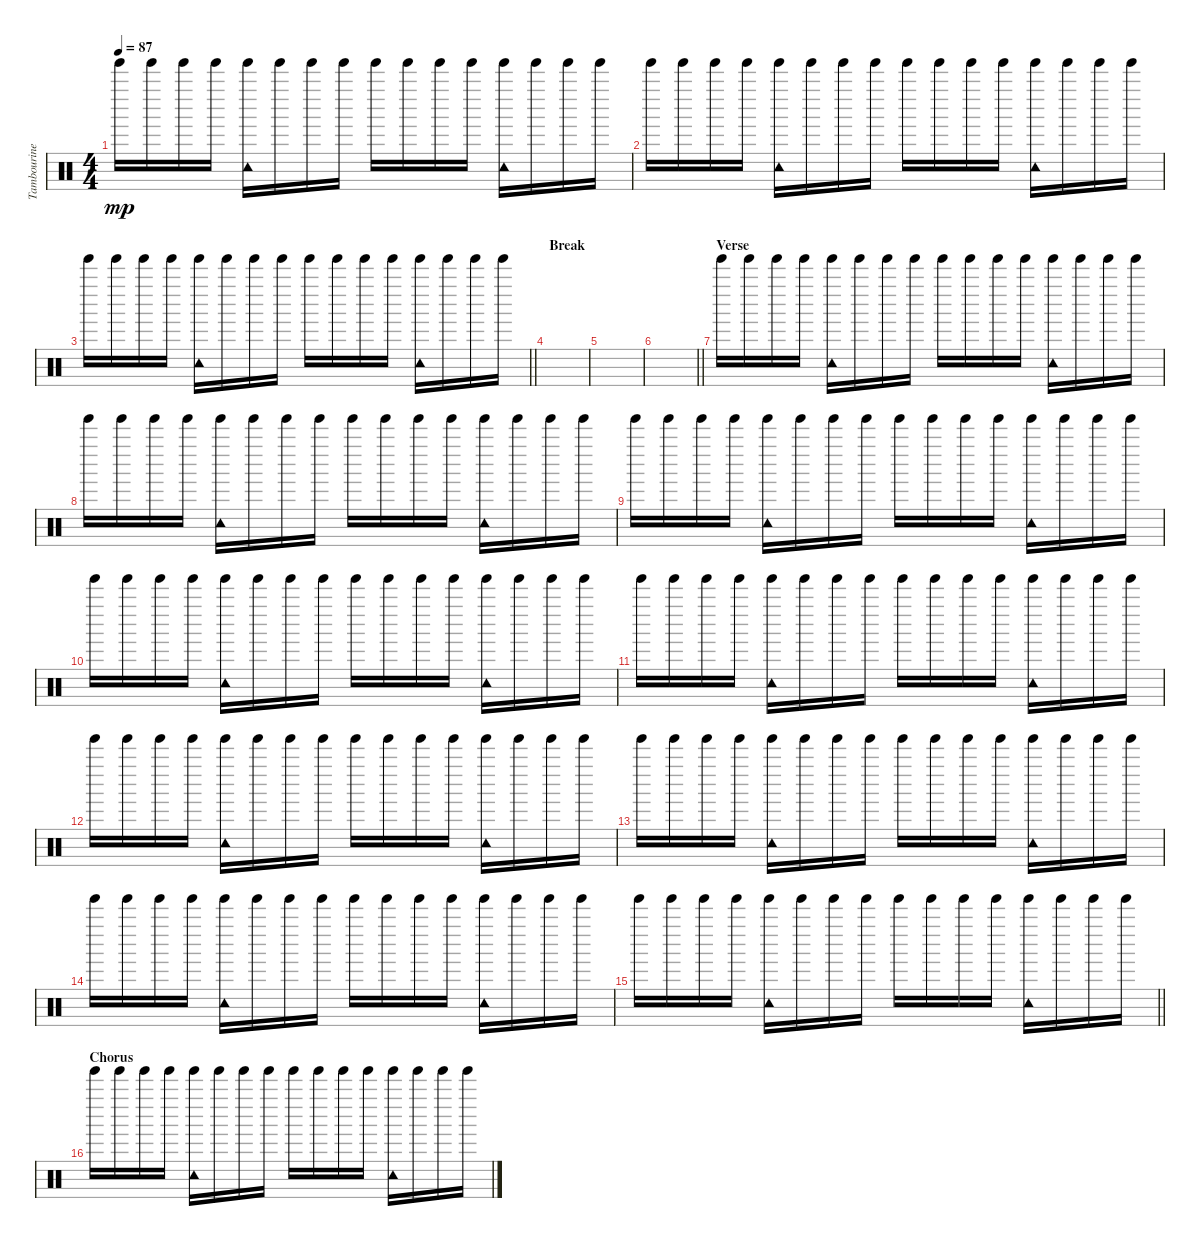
\track ("Tambourine" "Tambourine") {instrument percussion}
\staff {score}
\articulation defaults
\ts (4 4)
\tempo 87
\clef neutral
\ks c "Tinkle Bell (hit)".16{dy mp} "Tinkle Bell (hit)".16 "Tinkle Bell (hit)".16 "Tinkle Bell (hit)".16
("Tinkle Bell (hit)" "Tambourine (hit)").16 "Tinkle Bell (hit)".16 "Tinkle Bell (hit)".16 "Tinkle Bell (hit)".16 "Tinkle Bell (hit)".16 "Tinkle Bell (hit)".16 "Tinkle Bell (hit)".16 "Tinkle Bell (hit)".16 ("Tinkle Bell (hit)" "Tambourine (hit)").16 "Tinkle Bell (hit)".16 "Tinkle Bell (hit)".16 "Tinkle Bell (hit)".16 |
"Tinkle Bell (hit)".16 "Tinkle Bell (hit)".16 "Tinkle Bell (hit)".16 "Tinkle Bell (hit)".16 ("Tinkle Bell (hit)" "Tambourine (hit)").16 "Tinkle Bell (hit)".16 "Tinkle Bell (hit)".16 "Tinkle Bell (hit)".16 "Tinkle Bell (hit)".16 "Tinkle Bell (hit)".16 "Tinkle Bell (hit)".16 "Tinkle Bell (hit)".16 ("Tinkle Bell (hit)" "Tambourine (hit)").16 "Tinkle Bell (hit)".16 "Tinkle Bell (hit)".16 "Tinkle Bell (hit)".16 |
\barLineRight lightlight "Tinkle Bell (hit)".16 "Tinkle Bell (hit)".16 "Tinkle Bell (hit)".16 "Tinkle Bell (hit)".16
("Tinkle Bell (hit)" "Tambourine (hit)").16 "Tinkle Bell (hit)".16 "Tinkle Bell (hit)".16 "Tinkle Bell (hit)".16 "Tinkle Bell (hit)".16 "Tinkle Bell (hit)".16 "Tinkle Bell (hit)".16 "Tinkle Bell (hit)".16 ("Tinkle Bell (hit)" "Tambourine (hit)").16 "Tinkle Bell (hit)".16 "Tinkle Bell (hit)".16 "Tinkle Bell (hit)".16 |
\section ("" "Break")
|
|
\barLineRight lightlight
|
\section ("" "Verse")
"Tinkle Bell (hit)".16 "Tinkle Bell (hit)".16 "Tinkle Bell (hit)".16 "Tinkle Bell (hit)".16 ("Tinkle Bell (hit)" "Tambourine (hit)").16 "Tinkle Bell (hit)".16 "Tinkle Bell (hit)".16 "Tinkle Bell (hit)".16 "Tinkle Bell (hit)".16 "Tinkle Bell (hit)".16 "Tinkle Bell (hit)".16 "Tinkle Bell (hit)".16 ("Tinkle Bell (hit)" "Tambourine (hit)").16 "Tinkle Bell (hit)".16 "Tinkle Bell (hit)".16 "Tinkle Bell (hit)".16 |
"Tinkle Bell (hit)".16 "Tinkle Bell (hit)".16 "Tinkle Bell (hit)".16 "Tinkle Bell (hit)".16 ("Tinkle Bell (hit)" "Tambourine (hit)").16 "Tinkle Bell (hit)".16 "Tinkle Bell (hit)".16 "Tinkle Bell (hit)".16 "Tinkle Bell (hit)".16 "Tinkle Bell (hit)".16 "Tinkle Bell (hit)".16 "Tinkle Bell (hit)".16 ("Tinkle Bell (hit)" "Tambourine (hit)").16 "Tinkle Bell (hit)".16 "Tinkle Bell (hit)".16 "Tinkle Bell (hit)".16 |
"Tinkle Bell (hit)".16 "Tinkle Bell (hit)".16 "Tinkle Bell (hit)".16 "Tinkle Bell (hit)".16 ("Tinkle Bell (hit)" "Tambourine (hit)").16 "Tinkle Bell (hit)".16 "Tinkle Bell (hit)".16 "Tinkle Bell (hit)".16 "Tinkle Bell (hit)".16 "Tinkle Bell (hit)".16 "Tinkle Bell (hit)".16 "Tinkle Bell (hit)".16 ("Tinkle Bell (hit)" "Tambourine (hit)").16 "Tinkle Bell (hit)".16 "Tinkle Bell (hit)".16 "Tinkle Bell (hit)".16 |
"Tinkle Bell (hit)".16 "Tinkle Bell (hit)".16 "Tinkle Bell (hit)".16 "Tinkle Bell (hit)".16 ("Tinkle Bell (hit)" "Tambourine (hit)").16 "Tinkle Bell (hit)".16 "Tinkle Bell (hit)".16 "Tinkle Bell (hit)".16 "Tinkle Bell (hit)".16 "Tinkle Bell (hit)".16 "Tinkle Bell (hit)".16 "Tinkle Bell (hit)".16 ("Tinkle Bell (hit)" "Tambourine (hit)").16 "Tinkle Bell (hit)".16 "Tinkle Bell (hit)".16 "Tinkle Bell (hit)".16 |
"Tinkle Bell (hit)".16 "Tinkle Bell (hit)".16 "Tinkle Bell (hit)".16 "Tinkle Bell (hit)".16 ("Tinkle Bell (hit)" "Tambourine (hit)").16 "Tinkle Bell (hit)".16 "Tinkle Bell (hit)".16 "Tinkle Bell (hit)".16 "Tinkle Bell (hit)".16 "Tinkle Bell (hit)".16 "Tinkle Bell (hit)".16 "Tinkle Bell (hit)".16 ("Tinkle Bell (hit)" "Tambourine (hit)").16 "Tinkle Bell (hit)".16 "Tinkle Bell (hit)".16 "Tinkle Bell (hit)".16 |
"Tinkle Bell (hit)".16 "Tinkle Bell (hit)".16 "Tinkle Bell (hit)".16 "Tinkle Bell (hit)".16 ("Tinkle Bell (hit)" "Tambourine (hit)").16 "Tinkle Bell (hit)".16 "Tinkle Bell (hit)".16 "Tinkle Bell (hit)".16 "Tinkle Bell (hit)".16 "Tinkle Bell (hit)".16 "Tinkle Bell (hit)".16 "Tinkle Bell (hit)".16 ("Tinkle Bell (hit)" "Tambourine (hit)").16 "Tinkle Bell (hit)".16 "Tinkle Bell (hit)".16 "Tinkle Bell (hit)".16 |
"Tinkle Bell (hit)".16 "Tinkle Bell (hit)".16 "Tinkle Bell (hit)".16 "Tinkle Bell (hit)".16 ("Tinkle Bell (hit)" "Tambourine (hit)").16 "Tinkle Bell (hit)".16 "Tinkle Bell (hit)".16 "Tinkle Bell (hit)".16 "Tinkle Bell (hit)".16 "Tinkle Bell (hit)".16 "Tinkle Bell (hit)".16 "Tinkle Bell (hit)".16 ("Tinkle Bell (hit)" "Tambourine (hit)").16 "Tinkle Bell (hit)".16 "Tinkle Bell (hit)".16 "Tinkle Bell (hit)".16 |
"Tinkle Bell (hit)".16 "Tinkle Bell (hit)".16 "Tinkle Bell (hit)".16 "Tinkle Bell (hit)".16 ("Tinkle Bell (hit)" "Tambourine (hit)").16 "Tinkle Bell (hit)".16 "Tinkle Bell (hit)".16 "Tinkle Bell (hit)".16 "Tinkle Bell (hit)".16 "Tinkle Bell (hit)".16 "Tinkle Bell (hit)".16 "Tinkle Bell (hit)".16 ("Tinkle Bell (hit)" "Tambourine (hit)").16 "Tinkle Bell (hit)".16 "Tinkle Bell (hit)".16 "Tinkle Bell (hit)".16 |
\barLineRight lightlight "Tinkle Bell (hit)".16 "Tinkle Bell (hit)".16 "Tinkle Bell (hit)".16 "Tinkle Bell (hit)".16
("Tinkle Bell (hit)" "Tambourine (hit)").16 "Tinkle Bell (hit)".16 "Tinkle Bell (hit)".16 "Tinkle Bell (hit)".16 "Tinkle Bell (hit)".16 "Tinkle Bell (hit)".16 "Tinkle Bell (hit)".16 "Tinkle Bell (hit)".16 ("Tinkle Bell (hit)" "Tambourine (hit)").16 "Tinkle Bell (hit)".16 "Tinkle Bell (hit)".16 "Tinkle Bell (hit)".16 |
\section ("" "Chorus")
"Tinkle Bell (hit)".16 "Tinkle Bell (hit)".16 "Tinkle Bell (hit)".16 "Tinkle Bell (hit)".16 ("Tinkle Bell (hit)" "Tambourine (hit)").16 "Tinkle Bell (hit)".16 "Tinkle Bell (hit)".16 "Tinkle Bell (hit)".16 "Tinkle Bell (hit)".16 "Tinkle Bell (hit)".16 "Tinkle Bell (hit)".16 "Tinkle Bell (hit)".16 ("Tinkle Bell (hit)" "Tambourine (hit)").16 "Tinkle Bell (hit)".16 "Tinkle Bell (hit)".16 "Tinkle Bell (hit)".16
